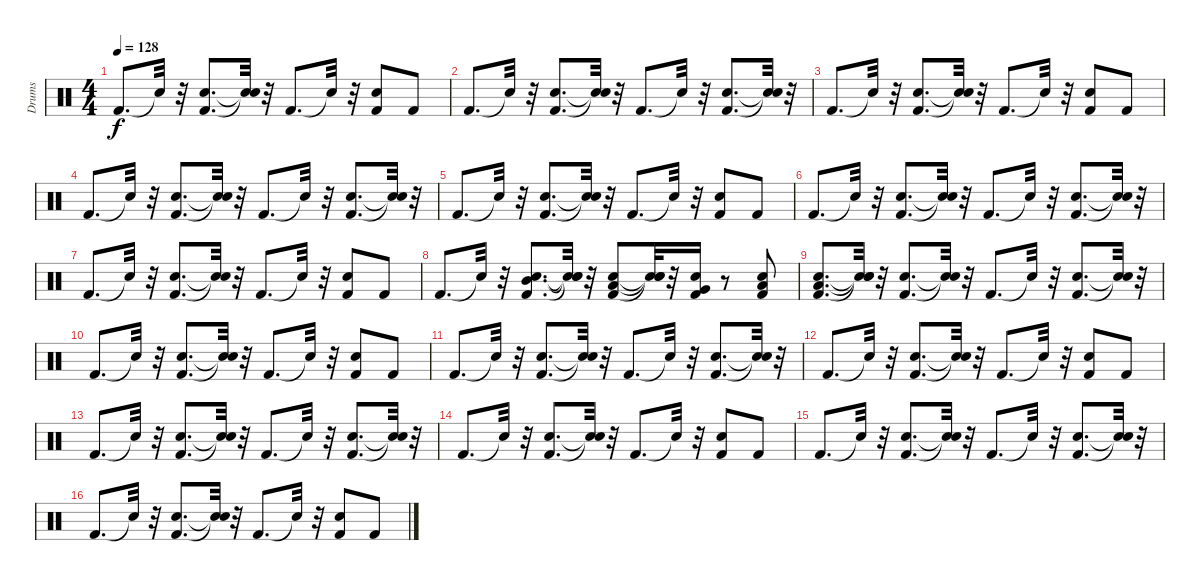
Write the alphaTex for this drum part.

\track ("Drums" "Drums") {instrument percussion}
\staff {score}
\articulation defaults
\ts (4 4)
\tempo 128
\clef neutral
\ks c "Kick (hit) 2".8{d dy f} "Snare (hit)"{t}.32
r.32 ("Snare (hit) 2" "Kick (hit) 2").8{d} ("Snare (hit)"{t} "Snare (hit)"{t}).32 r.32 "Kick (hit) 2".8{d} "Snare (hit)"{t}.32 r.32 ("Kick (hit) 2" "Snare (hit) 2").8 "Kick (hit) 2".8 |
"Kick (hit) 2".8{d} "Snare (hit)"{t}.32 r.32 ("Kick (hit) 2" "Snare (hit) 2").8{d} ("Snare (hit)"{t} "Snare (hit)"{t}).32 r.32 "Kick (hit) 2".8{d} "Snare (hit)"{t}.32 r.32 ("Snare (hit) 2" "Kick (hit) 2").8{d} ("Snare (hit)"{t} "Snare (hit)"{t}).32 r.32 |
"Kick (hit) 2".8{d} "Snare (hit)"{t}.32 r.32 ("Kick (hit) 2" "Snare (hit) 2").8{d} ("Snare (hit)"{t} "Snare (hit)"{t}).32 r.32 "Kick (hit) 2".8{d} "Snare (hit)"{t}.32 r.32 ("Kick (hit) 2" "Snare (hit) 2").8 "Kick (hit) 2".8 |
"Kick (hit) 2".8{d} "Snare (hit)"{t}.32 r.32 ("Snare (hit) 2" "Kick (hit) 2").8{d} ("Snare (hit)"{t} "Snare (hit)"{t}).32 r.32 "Kick (hit) 2".8{d} "Snare (hit)"{t}.32 r.32 ("Snare (hit) 2" "Kick (hit) 2").8{d} ("Snare (hit)"{t} "Snare (hit)"{t}).32 r.32 |
"Kick (hit) 2".8{d} "Snare (hit)"{t}.32 r.32 ("Snare (hit) 2" "Kick (hit) 2").8{d} ("Snare (hit)"{t} "Snare (hit)"{t}).32 r.32 "Kick (hit) 2".8{d} "Snare (hit)"{t}.32 r.32 ("Kick (hit) 2" "Snare (hit) 2").8 "Kick (hit) 2".8 |
"Kick (hit) 2".8{d} "Snare (hit)"{t}.32 r.32 ("Snare (hit) 2" "Kick (hit) 2").8{d} ("Snare (hit)"{t} "Snare (hit)"{t}).32 r.32 "Kick (hit) 2".8{d} "Snare (hit)"{t}.32 r.32 ("Kick (hit) 2" "Snare (hit) 2").8{d} ("Snare (hit)"{t} "Snare (hit)"{t}).32 r.32 |
"Kick (hit) 2".8{d} "Snare (hit)"{t}.32 r.32 ("Kick (hit) 2" "Snare (hit) 2").8{d} ("Snare (hit)"{t} "Snare (hit)"{t}).32 r.32 "Kick (hit) 2".8{d} "Snare (hit)"{t}.32 r.32 ("Snare (hit) 2" "Kick (hit) 2").8 "Kick (hit) 2".8 |
"Kick (hit) 2".8{d} "Snare (hit)"{t}.32 r.32 ("Kick (hit) 2" "Snare (hit) 2" "Mid Tom (hit)").8{d} ("Snare (hit)"{t} "Snare (hit)"{t} "Snare (hit)"{t}).32 r.32 ("Snare (hit) 2" "Kick (hit) 2" "Low Tom (hit)").8 ("Snare (hit)"{t} "Snare (hit)"{t} "Snare (hit)"{t}).32 r.32 ("Kick (hit) 2" "Very Low Tom (hit)" "Snare (hit) 2").16 r.8 ("Low Floor Tom (hit)" "Snare (hit) 2" "Kick (hit) 2").8 |
("Kick (hit) 2" "Low Floor Tom (hit)" "Snare (hit) 2").8{d} ("Snare (hit)"{t} "Snare (hit)"{t} "Snare (hit)"{t}).32 r.32 ("Snare (hit) 2" "Kick (hit) 2").8{d} ("Snare (hit)"{t} "Snare (hit)"{t}).32 r.32 "Kick (hit) 2".8{d} "Snare (hit)"{t}.32 r.32 ("Kick (hit) 2" "Snare (hit) 2").8{d} ("Snare (hit)"{t} "Snare (hit)"{t}).32 r.32 |
"Kick (hit) 2".8{d} "Snare (hit)"{t}.32 r.32 ("Kick (hit) 2" "Snare (hit) 2").8{d} ("Snare (hit)"{t} "Snare (hit)"{t}).32 r.32 "Kick (hit) 2".8{d} "Snare (hit)"{t}.32 r.32 ("Kick (hit) 2" "Snare (hit) 2").8 "Kick (hit) 2".8 |
"Kick (hit) 2".8{d} "Snare (hit)"{t}.32 r.32 ("Snare (hit) 2" "Kick (hit) 2").8{d} ("Snare (hit)"{t} "Snare (hit)"{t}).32 r.32 "Kick (hit) 2".8{d} "Snare (hit)"{t}.32 r.32 ("Snare (hit) 2" "Kick (hit) 2").8{d} ("Snare (hit)"{t} "Snare (hit)"{t}).32 r.32 |
"Kick (hit) 2".8{d} "Snare (hit)"{t}.32 r.32 ("Snare (hit) 2" "Kick (hit) 2").8{d} ("Snare (hit)"{t} "Snare (hit)"{t}).32 r.32 "Kick (hit) 2".8{d} "Snare (hit)"{t}.32 r.32 ("Snare (hit) 2" "Kick (hit) 2").8 "Kick (hit) 2".8 |
"Kick (hit) 2".8{d} "Snare (hit)"{t}.32 r.32 ("Kick (hit) 2" "Snare (hit) 2").8{d} ("Snare (hit)"{t} "Snare (hit)"{t}).32 r.32 "Kick (hit) 2".8{d} "Snare (hit)"{t}.32 r.32 ("Snare (hit) 2" "Kick (hit) 2").8{d} ("Snare (hit)"{t} "Snare (hit)"{t}).32 r.32 |
"Kick (hit) 2".8{d} "Snare (hit)"{t}.32 r.32 ("Snare (hit) 2" "Kick (hit) 2").8{d} ("Snare (hit)"{t} "Snare (hit)"{t}).32 r.32 "Kick (hit) 2".8{d} "Snare (hit)"{t}.32 r.32 ("Kick (hit) 2" "Snare (hit) 2").8 "Kick (hit) 2".8 |
"Kick (hit) 2".8{d} "Snare (hit)"{t}.32 r.32 ("Snare (hit) 2" "Kick (hit) 2").8{d} ("Snare (hit)"{t} "Snare (hit)"{t}).32 r.32 "Kick (hit) 2".8{d} "Snare (hit)"{t}.32 r.32 ("Kick (hit) 2" "Snare (hit) 2").8{d} ("Snare (hit)"{t} "Snare (hit)"{t}).32 r.32 |
"Kick (hit) 2".8{d} "Snare (hit)"{t}.32 r.32 ("Kick (hit) 2" "Snare (hit) 2").8{d} ("Snare (hit)"{t} "Snare (hit)"{t}).32 r.32 "Kick (hit) 2".8{d} "Snare (hit)"{t}.32 r.32 ("Snare (hit) 2" "Kick (hit) 2").8 "Kick (hit) 2".8
